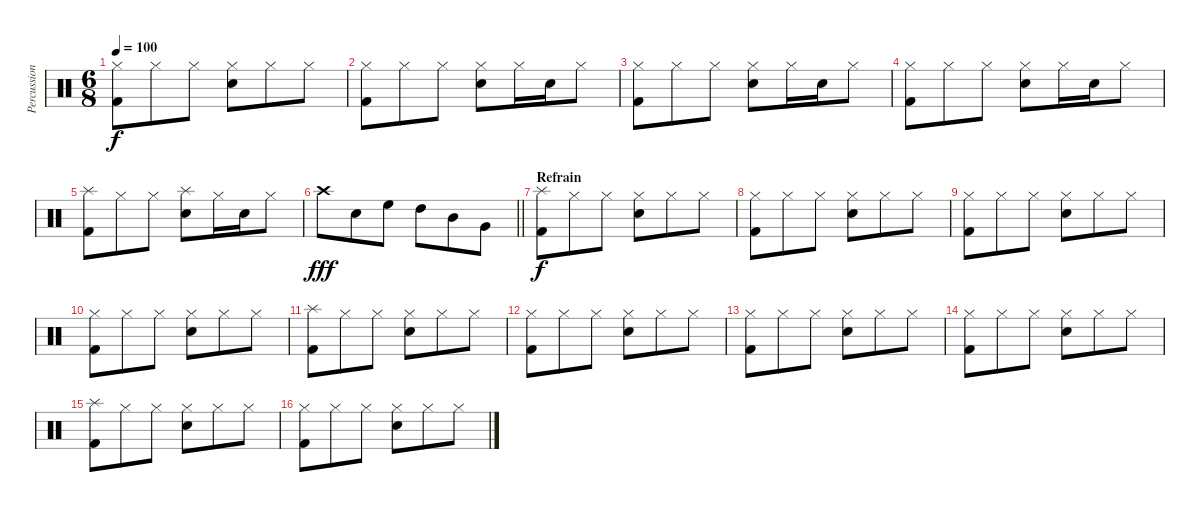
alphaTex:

\track ("Percussion" "Percussion") {instrument percussion}
\staff {score}
\articulation defaults
\ts (6 8)
\tempo 100
\clef neutral
\ks c
("Hi-Hat (closed)" "Kick (hit) 2").8{dy f} "Hi-Hat (closed)".8 "Hi-Hat (closed)".8 ("Hi-Hat (closed)" "Electric Snare (hit)").8 "Hi-Hat (closed)".8 "Hi-Hat (closed)".8 |
("Hi-Hat (closed)" "Kick (hit) 2").8 "Hi-Hat (closed)".8 "Hi-Hat (closed)".8 ("Hi-Hat (closed)" "Snare (hit) 2").8 "Hi-Hat (closed)".16 "Snare (hit) 2".16 "Hi-Hat (closed)".8 |
("Hi-Hat (closed)" "Kick (hit) 2").8 "Hi-Hat (closed)".8 "Hi-Hat (closed)".8 ("Hi-Hat (closed)" "Snare (hit) 2").8 "Hi-Hat (closed)".16 "Snare (hit) 2".16 "Hi-Hat (closed)".8 |
("Hi-Hat (closed)" "Kick (hit) 2").8 "Hi-Hat (closed)".8 "Hi-Hat (closed)".8 ("Hi-Hat (closed)" "Snare (hit) 2").8 "Hi-Hat (closed)".16 "Snare (hit) 2".16 "Hi-Hat (closed)".8 |
("Splash (hit)" "Kick (hit) 2").8 "Hi-Hat (closed)".8 "Hi-Hat (closed)".8 ("Splash (hit)" "Snare (hit) 2").8 "Hi-Hat (closed)".16 "Snare (hit) 2".16 "Hi-Hat (closed)".8 |
\barLineRight lightlight "Crash high (hit)".8{dy fff} "Snare (hit) 2".8 "High Floor Tom (hit)".8 "High Tom (hit)".8 "Mid Tom (hit)".8 "Very Low Tom (hit)".8
|
\section ("" "Refrain")
("Splash (hit)" "Kick (hit) 2").8{dy f} "Hi-Hat (closed)".8 "Hi-Hat (closed)".8 ("Hi-Hat (closed)" "Electric Snare (hit)").8 "Hi-Hat (closed)".8 "Hi-Hat (closed)".8 |
("Hi-Hat (closed)" "Kick (hit) 2").8 "Hi-Hat (closed)".8 "Hi-Hat (closed)".8 ("Hi-Hat (closed)" "Electric Snare (hit)").8 "Hi-Hat (closed)".8 "Hi-Hat (closed)".8 |
("Hi-Hat (closed)" "Kick (hit) 2").8 "Hi-Hat (closed)".8 "Hi-Hat (closed)".8 ("Hi-Hat (closed)" "Electric Snare (hit)").8 "Hi-Hat (closed)".8 "Hi-Hat (closed)".8 |
("Hi-Hat (closed)" "Kick (hit) 2").8 "Hi-Hat (closed)".8 "Hi-Hat (closed)".8 ("Hi-Hat (closed)" "Electric Snare (hit)").8 "Hi-Hat (closed)".8 "Hi-Hat (closed)".8 |
("Splash (hit)" "Kick (hit) 2").8 "Hi-Hat (closed)".8 "Hi-Hat (closed)".8 ("Hi-Hat (closed)" "Electric Snare (hit)").8 "Hi-Hat (closed)".8 "Hi-Hat (closed)".8 |
("Hi-Hat (closed)" "Kick (hit) 2").8 "Hi-Hat (closed)".8 "Hi-Hat (closed)".8 ("Hi-Hat (closed)" "Electric Snare (hit)").8 "Hi-Hat (closed)".8 "Hi-Hat (closed)".8 |
("Hi-Hat (closed)" "Kick (hit) 2").8 "Hi-Hat (closed)".8 "Hi-Hat (closed)".8 ("Hi-Hat (closed)" "Electric Snare (hit)").8 "Hi-Hat (closed)".8 "Hi-Hat (closed)".8 |
("Hi-Hat (closed)" "Kick (hit) 2").8 "Hi-Hat (closed)".8 "Hi-Hat (closed)".8 ("Hi-Hat (closed)" "Electric Snare (hit)").8 "Hi-Hat (closed)".8 "Hi-Hat (closed)".8 |
("Splash (hit)" "Kick (hit) 2").8 "Hi-Hat (closed)".8 "Hi-Hat (closed)".8 ("Hi-Hat (closed)" "Electric Snare (hit)").8 "Hi-Hat (closed)".8 "Hi-Hat (closed)".8 |
("Hi-Hat (closed)" "Kick (hit) 2").8 "Hi-Hat (closed)".8 "Hi-Hat (closed)".8 ("Hi-Hat (closed)" "Electric Snare (hit)").8 "Hi-Hat (closed)".8 "Hi-Hat (closed)".8
